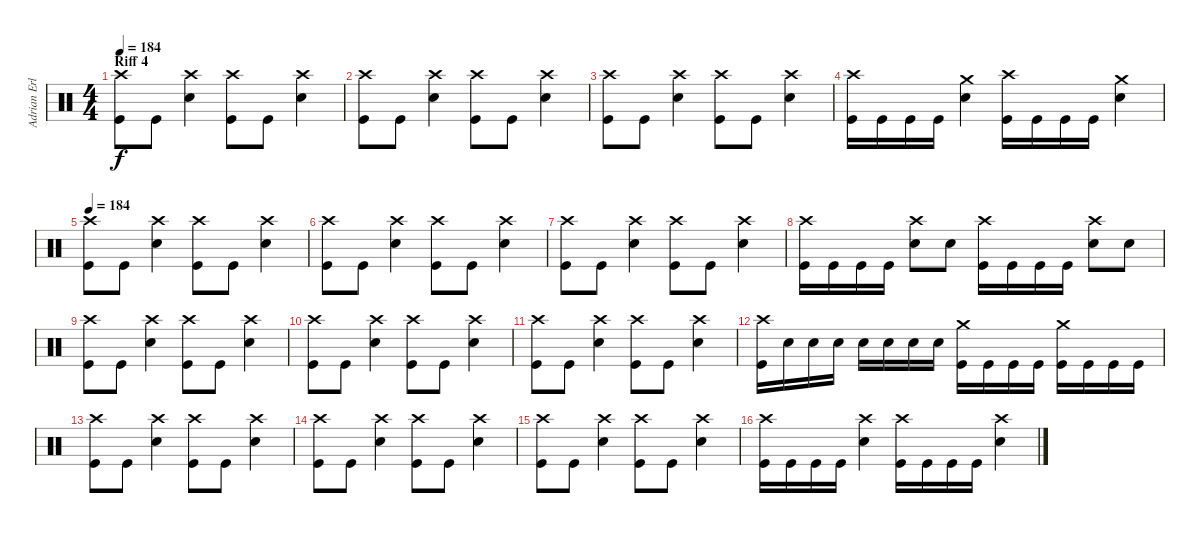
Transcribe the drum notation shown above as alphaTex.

\track ("Adrian Erlandsson (Norseman of the Apoca" "Adrian Erl") {instrument percussion}
\staff {score}
\articulation defaults
\ts (4 4)
\section ("" "Riff 4")
\tempo 184
\clef neutral
\ks c
("Crash high (hit)" "Kick (hit)").8{dy f} "Kick (hit)".8 ("Crash high (hit)" "Electric Snare (hit)").4 ("Crash high (hit)" "Kick (hit)").8 "Kick (hit)".8 ("Crash high (hit)" "Electric Snare (hit)").4 |
("Crash high (hit)" "Kick (hit)").8 "Kick (hit)".8 ("Crash high (hit)" "Electric Snare (hit)").4 ("Crash high (hit)" "Kick (hit)").8 "Kick (hit)".8 ("Crash high (hit)" "Electric Snare (hit)").4 |
("Crash high (hit)" "Kick (hit)").8 "Kick (hit)".8 ("Crash high (hit)" "Electric Snare (hit)").4 ("Crash high (hit)" "Kick (hit)").8 "Kick (hit)".8 ("Crash high (hit)" "Electric Snare (hit)").4 |
("Crash high (hit)" "Kick (hit)").16 "Kick (hit)".16 "Kick (hit)".16 "Kick (hit)".16 ("Crash medium (hit)" "Electric Snare (hit)").4 ("Crash high (hit)" "Kick (hit)").16 "Kick (hit)".16 "Kick (hit)".16 "Kick (hit)".16 ("Crash medium (hit)" "Electric Snare (hit)").4 |
\tempo 184
("Crash high (hit)" "Kick (hit)").8 "Kick (hit)".8 ("Crash high (hit)" "Electric Snare (hit)").4 ("Crash high (hit)" "Kick (hit)").8 "Kick (hit)".8 ("Crash high (hit)" "Electric Snare (hit)").4 |
("Crash high (hit)" "Kick (hit)").8 "Kick (hit)".8 ("Crash high (hit)" "Electric Snare (hit)").4 ("Crash high (hit)" "Kick (hit)").8 "Kick (hit)".8 ("Crash high (hit)" "Electric Snare (hit)").4 |
("Crash high (hit)" "Kick (hit)").8 "Kick (hit)".8 ("Crash high (hit)" "Electric Snare (hit)").4 ("Crash high (hit)" "Kick (hit)").8 "Kick (hit)".8 ("Crash high (hit)" "Electric Snare (hit)").4 |
("Crash high (hit)" "Kick (hit)").16 "Kick (hit)".16 "Kick (hit)".16 "Kick (hit)".16 ("Crash high (hit)" "Electric Snare (hit)").8 "Electric Snare (hit)".8 ("Crash high (hit)" "Kick (hit)").16 "Kick (hit)".16 "Kick (hit)".16 "Kick (hit)".16 ("Crash high (hit)" "Electric Snare (hit)").8 "Electric Snare (hit)".8 |
("Crash high (hit)" "Kick (hit)").8 "Kick (hit)".8 ("Crash high (hit)" "Electric Snare (hit)").4 ("Crash high (hit)" "Kick (hit)").8 "Kick (hit)".8 ("Crash high (hit)" "Electric Snare (hit)").4 |
("Crash high (hit)" "Kick (hit)").8 "Kick (hit)".8 ("Crash high (hit)" "Electric Snare (hit)").4 ("Crash high (hit)" "Kick (hit)").8 "Kick (hit)".8 ("Crash high (hit)" "Electric Snare (hit)").4 |
("Crash high (hit)" "Kick (hit)").8 "Kick (hit)".8 ("Crash high (hit)" "Electric Snare (hit)").4 ("Crash high (hit)" "Kick (hit)").8 "Kick (hit)".8 ("Crash high (hit)" "Electric Snare (hit)").4 |
("Crash high (hit)" "Kick (hit)").16 "Electric Snare (hit)".16 "Electric Snare (hit)".16 "Electric Snare (hit)".16 "Electric Snare (hit)".16 "Electric Snare (hit)".16 "Electric Snare (hit)".16 "Electric Snare (hit)".16 ("Crash medium (hit)" "Kick (hit)").16 "Kick (hit)".16 "Kick (hit)".16 "Kick (hit)".16 ("Crash medium (hit)" "Kick (hit)").16 "Kick (hit)".16 "Kick (hit)".16 "Kick (hit)".16 |
("Crash high (hit)" "Kick (hit)").8 "Kick (hit)".8 ("Crash high (hit)" "Electric Snare (hit)").4 ("Crash high (hit)" "Kick (hit)").8 "Kick (hit)".8 ("Crash high (hit)" "Electric Snare (hit)").4 |
("Crash high (hit)" "Kick (hit)").8 "Kick (hit)".8 ("Crash high (hit)" "Electric Snare (hit)").4 ("Crash high (hit)" "Kick (hit)").8 "Kick (hit)".8 ("Crash high (hit)" "Electric Snare (hit)").4 |
("Crash high (hit)" "Kick (hit)").8 "Kick (hit)".8 ("Crash high (hit)" "Electric Snare (hit)").4 ("Crash high (hit)" "Kick (hit)").8 "Kick (hit)".8 ("Crash high (hit)" "Electric Snare (hit)").4 |
("Crash high (hit)" "Kick (hit)").16 "Kick (hit)".16 "Kick (hit)".16 "Kick (hit)".16 ("Crash high (hit)" "Electric Snare (hit)").4 ("Crash high (hit)" "Kick (hit)").16 "Kick (hit)".16 "Kick (hit)".16 "Kick (hit)".16 ("Crash high (hit)" "Electric Snare (hit)").4
